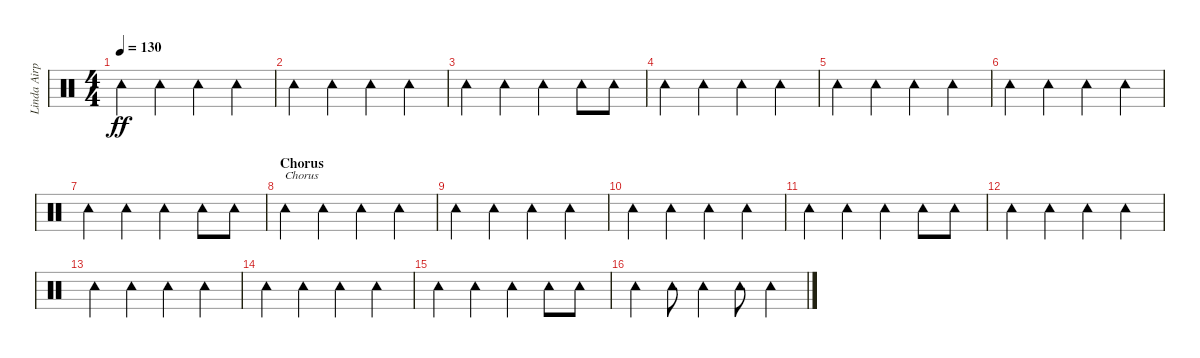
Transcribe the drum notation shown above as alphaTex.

\track ("Linda Airplane" "Linda Airp") {instrument percussion}
\staff {score}
\articulation defaults
\ts (4 4)
\tempo 130
\clef neutral
\ks c "Tambourine (hit)".4{dy ff} "Tambourine (hit)".4 "Tambourine (hit)".4 "Tambourine (hit)".4
|
"Tambourine (hit)".4 "Tambourine (hit)".4 "Tambourine (hit)".4 "Tambourine (hit)".4 |
"Tambourine (hit)".4 "Tambourine (hit)".4 "Tambourine (hit)".4 "Tambourine (hit)".8 "Tambourine (hit)".8 |
"Tambourine (hit)".4 "Tambourine (hit)".4 "Tambourine (hit)".4 "Tambourine (hit)".4 |
"Tambourine (hit)".4 "Tambourine (hit)".4 "Tambourine (hit)".4 "Tambourine (hit)".4 |
"Tambourine (hit)".4 "Tambourine (hit)".4 "Tambourine (hit)".4 "Tambourine (hit)".4 |
"Tambourine (hit)".4 "Tambourine (hit)".4 "Tambourine (hit)".4 "Tambourine (hit)".8 "Tambourine (hit)".8 |
\section ("" "Chorus")
"Tambourine (hit)".4{txt "Chorus"} "Tambourine (hit)".4 "Tambourine (hit)".4 "Tambourine (hit)".4 |
"Tambourine (hit)".4 "Tambourine (hit)".4 "Tambourine (hit)".4 "Tambourine (hit)".4 |
"Tambourine (hit)".4 "Tambourine (hit)".4 "Tambourine (hit)".4 "Tambourine (hit)".4 |
"Tambourine (hit)".4 "Tambourine (hit)".4 "Tambourine (hit)".4 "Tambourine (hit)".8 "Tambourine (hit)".8 |
"Tambourine (hit)".4 "Tambourine (hit)".4 "Tambourine (hit)".4 "Tambourine (hit)".4 |
"Tambourine (hit)".4 "Tambourine (hit)".4 "Tambourine (hit)".4 "Tambourine (hit)".4 |
"Tambourine (hit)".4 "Tambourine (hit)".4 "Tambourine (hit)".4 "Tambourine (hit)".4 |
"Tambourine (hit)".4 "Tambourine (hit)".4 "Tambourine (hit)".4 "Tambourine (hit)".8 "Tambourine (hit)".8 |
"Tambourine (hit)".4 "Tambourine (hit)".8 "Tambourine (hit)".4 "Tambourine (hit)".8 "Tambourine (hit)".4
